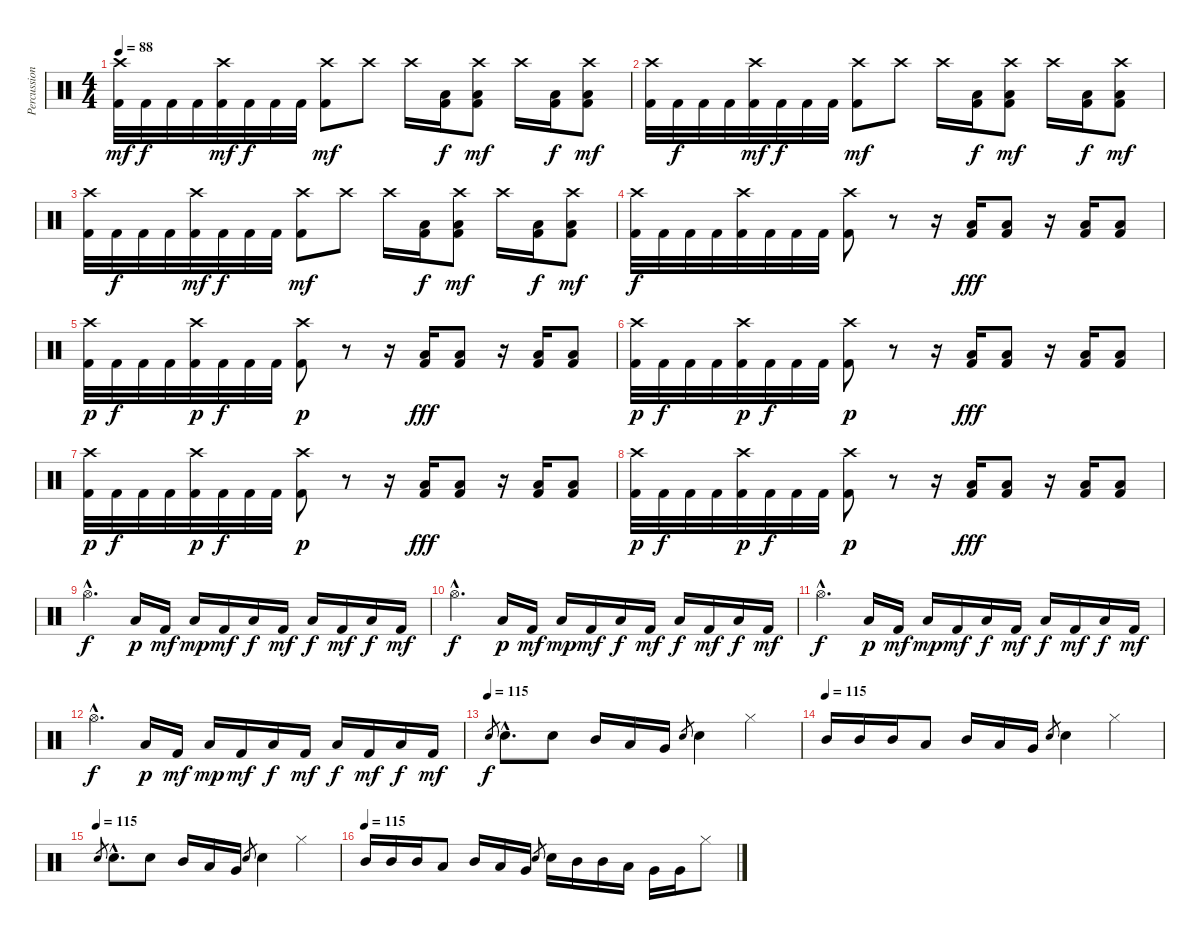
\track ("Percussion" "Percussion") {instrument percussion}
\staff {score}
\articulation defaults
\ts (4 4)
\tempo 88
\clef neutral
\ks c
("Crash high (hit)" "Kick (hit) 2").32{dy mf} "Kick (hit) 2".32{dy f} "Kick (hit) 2".32 "Kick (hit) 2".32 ("Crash high (hit)" "Kick (hit) 2").32{dy mf} "Kick (hit) 2".32{dy f} "Kick (hit) 2".32 "Kick (hit) 2".32 ("Crash high (hit)" "Kick (hit) 2").8{dy mf} "Crash high (hit)".8 "Crash high (hit)".16 ("Low Tom (hit)" "Kick (hit) 2").16{dy f} ("Crash high (hit)" "Low Tom (hit)" "Kick (hit) 2").8{dy mf} "Crash high (hit)".16 ("Low Tom (hit)" "Kick (hit) 2").16{dy f} ("Crash high (hit)" "Low Tom (hit)" "Kick (hit) 2").8{dy mf} |
("Crash high (hit)" "Kick (hit) 2").32 "Kick (hit) 2".32{dy f} "Kick (hit) 2".32 "Kick (hit) 2".32 ("Crash high (hit)" "Kick (hit) 2").32{dy mf} "Kick (hit) 2".32{dy f} "Kick (hit) 2".32 "Kick (hit) 2".32 ("Crash high (hit)" "Kick (hit) 2").8{dy mf} "Crash high (hit)".8 "Crash high (hit)".16 ("Low Tom (hit)" "Kick (hit) 2").16{dy f} ("Crash high (hit)" "Low Tom (hit)" "Kick (hit) 2").8{dy mf} "Crash high (hit)".16 ("Low Tom (hit)" "Kick (hit) 2").16{dy f} ("Crash high (hit)" "Low Tom (hit)" "Kick (hit) 2").8{dy mf} |
("Crash high (hit)" "Kick (hit) 2").32 "Kick (hit) 2".32{dy f} "Kick (hit) 2".32 "Kick (hit) 2".32 ("Crash high (hit)" "Kick (hit) 2").32{dy mf} "Kick (hit) 2".32{dy f} "Kick (hit) 2".32 "Kick (hit) 2".32 ("Crash high (hit)" "Kick (hit) 2").8{dy mf} "Crash high (hit)".8 "Crash high (hit)".16 ("Low Tom (hit)" "Kick (hit) 2").16{dy f} ("Crash high (hit)" "Low Tom (hit)" "Kick (hit) 2").8{dy mf} "Crash high (hit)".16 ("Low Tom (hit)" "Kick (hit) 2").16{dy f} ("Crash high (hit)" "Low Tom (hit)" "Kick (hit) 2").8{dy mf} |
("Crash high (hit)" "Kick (hit) 2").32{dy f} "Kick (hit) 2".32 "Kick (hit) 2".32 "Kick (hit) 2".32 ("Crash high (hit)" "Kick (hit) 2").32 "Kick (hit) 2".32 "Kick (hit) 2".32 "Kick (hit) 2".32 ("Crash high (hit)" "Kick (hit) 2").8 r.8 r.16 ("Low Tom (hit)" "Kick (hit) 2").16{dy fff} ("Low Tom (hit)" "Kick (hit) 2").8 r.16 ("Low Tom (hit)" "Kick (hit) 2").16 ("Low Tom (hit)" "Kick (hit) 2").8 |
("Crash high (hit)" "Kick (hit) 2").32{dy p} "Kick (hit) 2".32{dy f} "Kick (hit) 2".32 "Kick (hit) 2".32 ("Crash high (hit)" "Kick (hit) 2").32{dy p} "Kick (hit) 2".32{dy f} "Kick (hit) 2".32 "Kick (hit) 2".32 ("Crash high (hit)" "Kick (hit) 2").8{dy p} r.8 r.16 ("Low Tom (hit)" "Kick (hit) 2").16{dy fff} ("Low Tom (hit)" "Kick (hit) 2").8 r.16 ("Low Tom (hit)" "Kick (hit) 2").16 ("Low Tom (hit)" "Kick (hit) 2").8 |
("Crash high (hit)" "Kick (hit) 2").32{dy p} "Kick (hit) 2".32{dy f} "Kick (hit) 2".32 "Kick (hit) 2".32 ("Crash high (hit)" "Kick (hit) 2").32{dy p} "Kick (hit) 2".32{dy f} "Kick (hit) 2".32 "Kick (hit) 2".32 ("Crash high (hit)" "Kick (hit) 2").8{dy p} r.8 r.16 ("Low Tom (hit)" "Kick (hit) 2").16{dy fff} ("Low Tom (hit)" "Kick (hit) 2").8 r.16 ("Low Tom (hit)" "Kick (hit) 2").16 ("Low Tom (hit)" "Kick (hit) 2").8 |
("Crash high (hit)" "Kick (hit) 2").32{dy p} "Kick (hit) 2".32{dy f} "Kick (hit) 2".32 "Kick (hit) 2".32 ("Crash high (hit)" "Kick (hit) 2").32{dy p} "Kick (hit) 2".32{dy f} "Kick (hit) 2".32 "Kick (hit) 2".32 ("Crash high (hit)" "Kick (hit) 2").8{dy p} r.8 r.16 ("Low Tom (hit)" "Kick (hit) 2").16{dy fff} ("Low Tom (hit)" "Kick (hit) 2").8 r.16 ("Low Tom (hit)" "Kick (hit) 2").16 ("Low Tom (hit)" "Kick (hit) 2").8 |
("Crash high (hit)" "Kick (hit) 2").32{dy p} "Kick (hit) 2".32{dy f} "Kick (hit) 2".32 "Kick (hit) 2".32 ("Crash high (hit)" "Kick (hit) 2").32{dy p} "Kick (hit) 2".32{dy f} "Kick (hit) 2".32 "Kick (hit) 2".32 ("Crash high (hit)" "Kick (hit) 2").8{dy p} r.8 r.16 ("Low Tom (hit)" "Kick (hit) 2").16{dy fff} ("Low Tom (hit)" "Kick (hit) 2").8 r.16 ("Low Tom (hit)" "Kick (hit) 2").16 ("Low Tom (hit)" "Kick (hit) 2").8 |
"Hi-Hat (open)"{hac}.4{d dy f} "Low Tom (hit)".16{dy p} "Kick (hit) 2".16{dy mf} "Low Tom (hit)".16{dy mp} "Kick (hit) 2".16{dy mf} "Low Tom (hit)".16{dy f} "Kick (hit) 2".16{dy mf} "Low Tom (hit)".16{dy f} "Kick (hit) 2".16{dy mf} "Low Tom (hit)".16{dy f} "Kick (hit) 2".16{dy mf} |
"Hi-Hat (open)"{hac}.4{d dy f} "Low Tom (hit)".16{dy p} "Kick (hit) 2".16{dy mf} "Low Tom (hit)".16{dy mp} "Kick (hit) 2".16{dy mf} "Low Tom (hit)".16{dy f} "Kick (hit) 2".16{dy mf} "Low Tom (hit)".16{dy f} "Kick (hit) 2".16{dy mf} "Low Tom (hit)".16{dy f} "Kick (hit) 2".16{dy mf} |
"Hi-Hat (open)"{hac}.4{d dy f} "Low Tom (hit)".16{dy p} "Kick (hit) 2".16{dy mf} "Low Tom (hit)".16{dy mp} "Kick (hit) 2".16{dy mf} "Low Tom (hit)".16{dy f} "Kick (hit) 2".16{dy mf} "Low Tom (hit)".16{dy f} "Kick (hit) 2".16{dy mf} "Low Tom (hit)".16{dy f} "Kick (hit) 2".16{dy mf} |
"Hi-Hat (open)"{hac}.4{d dy f} "Low Tom (hit)".16{dy p} "Kick (hit) 2".16{dy mf} "Low Tom (hit)".16{dy mp} "Kick (hit) 2".16{dy mf} "Low Tom (hit)".16{dy f} "Kick (hit) 2".16{dy mf} "Low Tom (hit)".16{dy f} "Kick (hit) 2".16{dy mf} "Low Tom (hit)".16{dy f} "Kick (hit) 2".16{dy mf} |
\tempo (115)
"Electric Snare (hit)".8{gr dy f} "Electric Snare (hit)"{hac}.8{d} "Electric Snare (hit)".8 "Mid Tom (hit)".16 "Low Tom (hit)".16 "Very Low Tom (hit)".16 "Electric Snare (hit)".8{gr} "Electric Snare (hit)".4 "Hi-Hat (closed)".4 |
\tempo (115)
"Mid Tom (hit)".16 "Mid Tom (hit)".16 "Mid Tom (hit)".16 "Low Tom (hit)".8 "Mid Tom (hit)".16 "Low Tom (hit)".16 "Very Low Tom (hit)".16 "Electric Snare (hit)".8{gr} "Electric Snare (hit)".4 "Hi-Hat (closed)".4 |
\tempo (115)
"Electric Snare (hit)".8{gr} "Electric Snare (hit)"{hac}.8{d} "Electric Snare (hit)".8 "Mid Tom (hit)".16 "Low Tom (hit)".16 "Very Low Tom (hit)".16 "Electric Snare (hit)".8{gr} "Electric Snare (hit)".4 "Hi-Hat (closed)".4 |
\tempo (115)
"Mid Tom (hit)".16 "Mid Tom (hit)".16 "Mid Tom (hit)".16 "Low Tom (hit)".8 "Mid Tom (hit)".16 "Low Tom (hit)".16 "Very Low Tom (hit)".16 "Electric Snare (hit)".8{gr} "Electric Snare (hit)".16 "Mid Tom (hit)".16 "Mid Tom (hit)".16 "Low Tom (hit)".16 "Very Low Tom (hit)".16 "Very Low Tom (hit)".16 "Hi-Hat (closed)".8
